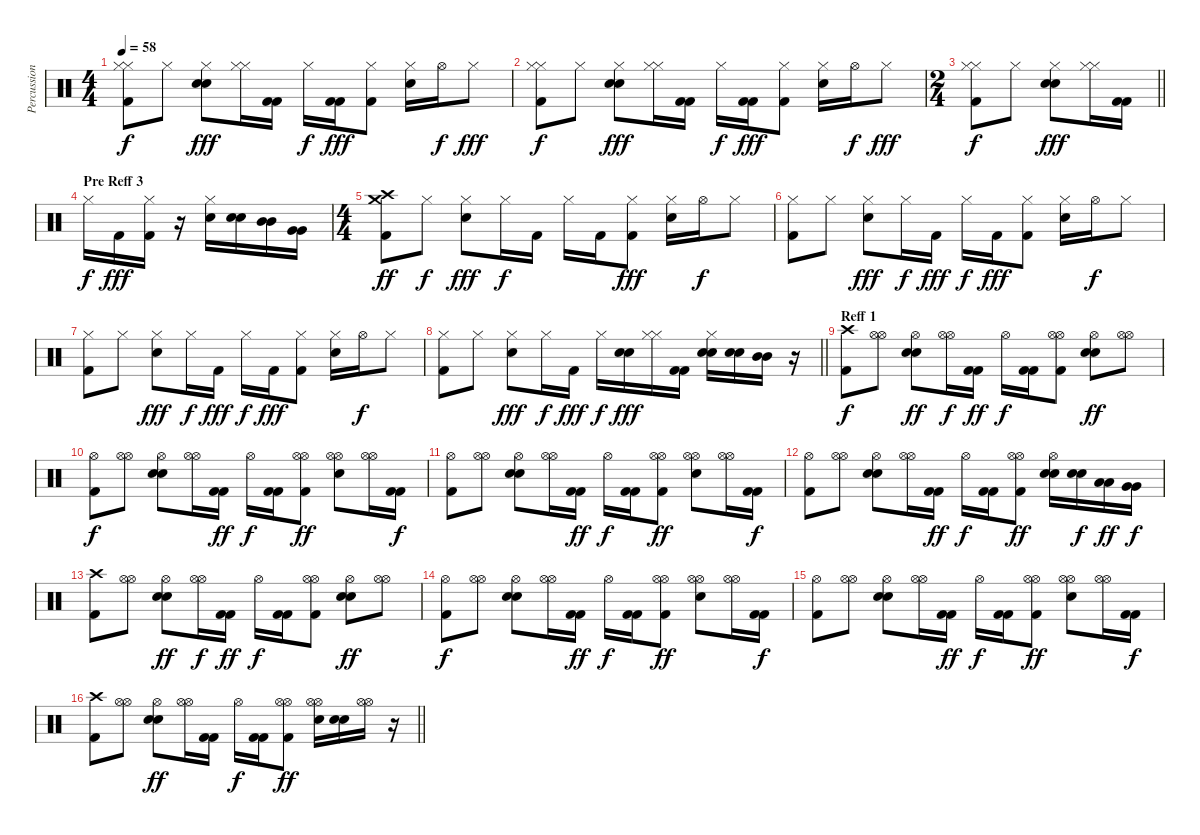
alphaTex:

\track ("Percussion" "Percussion") {instrument percussion}
\staff {score}
\articulation defaults
\ts (4 4)
\tempo 58
\clef neutral
\ks c
("Hi-Hat (closed)" "Kick (hit) 2" "Hi-Hat (closed)").8{dy f} "Hi-Hat (closed)".8 ("Electric Snare (hit)" "Hi-Hat (closed)" "Electric Snare (hit)").8{dy fff} ("Hi-Hat (closed)" "Hi-Hat (closed)").16 ("Kick (hit) 2" "Kick (hit) 2").16 "Hi-Hat (closed)".16{dy f} ("Kick (hit) 2" "Kick (hit) 2").16{dy fff} ("Kick (hit) 2" "Hi-Hat (closed)").8 ("Hi-Hat (closed)" "Electric Snare (hit)").16 "Hi-Hat (open)".16{dy f} "Hi-Hat (closed)".8{dy fff} |
("Hi-Hat (closed)" "Kick (hit) 2" "Hi-Hat (closed)").8{dy f} "Hi-Hat (closed)".8 ("Electric Snare (hit)" "Hi-Hat (closed)" "Electric Snare (hit)").8{dy fff} ("Hi-Hat (closed)" "Hi-Hat (closed)").16 ("Kick (hit) 2" "Kick (hit) 2").16 "Hi-Hat (closed)".16{dy f} ("Kick (hit) 2" "Kick (hit) 2").16{dy fff} ("Kick (hit) 2" "Hi-Hat (closed)").8 ("Hi-Hat (closed)" "Electric Snare (hit)").16 "Hi-Hat (open)".16{dy f} "Hi-Hat (closed)".8{dy fff} |
\ts (2 4)
\barLineRight lightlight
("Hi-Hat (closed)" "Kick (hit) 2" "Hi-Hat (closed)").8{dy f} "Hi-Hat (closed)".8 ("Electric Snare (hit)" "Hi-Hat (closed)" "Electric Snare (hit)").8{dy fff} ("Hi-Hat (closed)" "Hi-Hat (closed)").16 ("Kick (hit) 2" "Kick (hit) 2").16 |
\section ("" "Pre Reff 3")
"Hi-Hat (closed)".16{dy f} "Kick (hit) 2".16{dy fff} ("Hi-Hat (closed)" "Kick (hit) 2").16 r.16 ("Electric Snare (hit)" "Hi-Hat (closed)").16 ("Electric Snare (hit)" "Electric Snare (hit)").16 ("Mid Tom (hit)" "Mid Tom (hit)").16 ("Very Low Tom (hit)" "Very Low Tom (hit)").16 |
\ts (4 4)
("Crash medium (hit)" "Kick (hit) 2" "Crash high (hit)").8{dy ff} "Hi-Hat (closed)".8{dy f} ("Hi-Hat (closed)" "Electric Snare (hit)").8{dy fff} "Hi-Hat (closed)".16{dy f} "Kick (hit) 2".16 "Hi-Hat (closed)".16 "Kick (hit) 2".16 ("Kick (hit) 2" "Hi-Hat (closed)").8{dy fff} ("Hi-Hat (closed)" "Electric Snare (hit)").16 "Hi-Hat (open)".16{dy f} "Hi-Hat (closed)".8 |
("Kick (hit) 2" "Hi-Hat (closed)").8 "Hi-Hat (closed)".8 ("Hi-Hat (closed)" "Electric Snare (hit)").8{dy fff} "Hi-Hat (closed)".16{dy f} "Kick (hit) 2".16{dy fff} "Hi-Hat (closed)".16{dy f} "Kick (hit) 2".16{dy fff} ("Hi-Hat (closed)" "Kick (hit) 2").8 ("Electric Snare (hit)" "Hi-Hat (closed)").16 "Hi-Hat (open)".16{dy f} "Hi-Hat (closed)".8 |
("Kick (hit) 2" "Hi-Hat (closed)").8 "Hi-Hat (closed)".8 ("Hi-Hat (closed)" "Electric Snare (hit)").8{dy fff} "Hi-Hat (closed)".16{dy f} "Kick (hit) 2".16{dy fff} "Hi-Hat (closed)".16{dy f} "Kick (hit) 2".16{dy fff} ("Hi-Hat (closed)" "Kick (hit) 2").8 ("Electric Snare (hit)" "Hi-Hat (closed)").16 "Hi-Hat (open)".16{dy f} "Hi-Hat (closed)".8 |
\barLineRight lightlight
("Kick (hit) 2" "Hi-Hat (closed)").8 "Hi-Hat (closed)".8 ("Hi-Hat (closed)" "Electric Snare (hit)").8{dy fff} "Hi-Hat (closed)".16{dy f} "Kick (hit) 2".16{dy fff} "Hi-Hat (closed)".16{dy f} ("Electric Snare (hit)" "Electric Snare (hit)").16{dy fff} ("Hi-Hat (closed)" "Hi-Hat (closed)").16 ("Kick (hit) 2" "Kick (hit) 2").16 ("Hi-Hat (closed)" "Electric Snare (hit)" "Electric Snare (hit)").16 ("Electric Snare (hit)" "Electric Snare (hit)").16 ("Mid Tom (hit)" "Mid Tom (hit)").16 r.16 |
\section ("" "Reff 1")
("Kick (hit) 2" "Crash high (hit)").8{dy f} ("Hi-Hat (open)" "Hi-Hat (open)").8 ("Hi-Hat (open)" "Electric Snare (hit)" "Electric Snare (hit)").8{dy ff} ("Hi-Hat (open)" "Hi-Hat (open)").16{dy f} ("Kick (hit) 2" "Kick (hit) 2").16{dy ff} "Hi-Hat (open)".16{dy f} ("Kick (hit) 2" "Kick (hit) 2").16 ("Hi-Hat (open)" "Kick (hit) 2" "Hi-Hat (open)").8 ("Electric Snare (hit)" "Hi-Hat (open)" "Electric Snare (hit)").8{dy ff} ("Hi-Hat (open)" "Hi-Hat (open)").8 |
("Kick (hit) 2" "Hi-Hat (open)").8{dy f} ("Hi-Hat (open)" "Hi-Hat (open)").8 ("Electric Snare (hit)" "Hi-Hat (open)" "Electric Snare (hit)").8 ("Hi-Hat (open)" "Hi-Hat (open)").16 ("Kick (hit) 2" "Kick (hit) 2").16{dy ff} "Hi-Hat (open)".16{dy f} ("Kick (hit) 2" "Kick (hit) 2").16 ("Kick (hit) 2" "Hi-Hat (open)" "Hi-Hat (open)").8{dy ff} ("Hi-Hat (open)" "Electric Snare (hit)" "Hi-Hat (open)").8 ("Hi-Hat (open)" "Hi-Hat (open)").16 ("Kick (hit) 2" "Kick (hit) 2").16{dy f} |
("Kick (hit) 2" "Hi-Hat (open)").8 ("Hi-Hat (open)" "Hi-Hat (open)").8 ("Electric Snare (hit)" "Hi-Hat (open)" "Electric Snare (hit)").8 ("Hi-Hat (open)" "Hi-Hat (open)").16 ("Kick (hit) 2" "Kick (hit) 2").16{dy ff} "Hi-Hat (open)".16{dy f} ("Kick (hit) 2" "Kick (hit) 2").16 ("Kick (hit) 2" "Hi-Hat (open)" "Hi-Hat (open)").8{dy ff} ("Hi-Hat (open)" "Electric Snare (hit)" "Hi-Hat (open)").8 ("Hi-Hat (open)" "Hi-Hat (open)").16 ("Kick (hit) 2" "Kick (hit) 2").16{dy f} |
("Kick (hit) 2" "Hi-Hat (open)").8 ("Hi-Hat (open)" "Hi-Hat (open)").8 ("Electric Snare (hit)" "Hi-Hat (open)" "Electric Snare (hit)").8 ("Hi-Hat (open)" "Hi-Hat (open)").16 ("Kick (hit) 2" "Kick (hit) 2").16{dy ff} "Hi-Hat (open)".16{dy f} ("Kick (hit) 2" "Kick (hit) 2").16 ("Kick (hit) 2" "Hi-Hat (open)" "Hi-Hat (open)").8{dy ff} ("Hi-Hat (open)" "Electric Snare (hit)" "Electric Snare (hit)").16 ("Electric Snare (hit)" "Electric Snare (hit)").16{dy f} ("Low Tom (hit)" "Low Tom (hit)").16{dy ff} ("Very Low Tom (hit)" "Very Low Tom (hit)").16{dy f} |
("Kick (hit) 2" "Crash high (hit)").8 ("Hi-Hat (open)" "Hi-Hat (open)").8 ("Hi-Hat (open)" "Electric Snare (hit)" "Electric Snare (hit)").8{dy ff} ("Hi-Hat (open)" "Hi-Hat (open)").16{dy f} ("Kick (hit) 2" "Kick (hit) 2").16{dy ff} "Hi-Hat (open)".16{dy f} ("Kick (hit) 2" "Kick (hit) 2").16 ("Hi-Hat (open)" "Kick (hit) 2" "Hi-Hat (open)").8 ("Electric Snare (hit)" "Hi-Hat (open)" "Electric Snare (hit)").8{dy ff} ("Hi-Hat (open)" "Hi-Hat (open)").8 |
("Kick (hit) 2" "Hi-Hat (open)").8{dy f} ("Hi-Hat (open)" "Hi-Hat (open)").8 ("Electric Snare (hit)" "Hi-Hat (open)" "Electric Snare (hit)").8 ("Hi-Hat (open)" "Hi-Hat (open)").16 ("Kick (hit) 2" "Kick (hit) 2").16{dy ff} "Hi-Hat (open)".16{dy f} ("Kick (hit) 2" "Kick (hit) 2").16 ("Kick (hit) 2" "Hi-Hat (open)" "Hi-Hat (open)").8{dy ff} ("Hi-Hat (open)" "Electric Snare (hit)" "Hi-Hat (open)").8 ("Hi-Hat (open)" "Hi-Hat (open)").16 ("Kick (hit) 2" "Kick (hit) 2").16{dy f} |
("Kick (hit) 2" "Hi-Hat (open)").8 ("Hi-Hat (open)" "Hi-Hat (open)").8 ("Electric Snare (hit)" "Hi-Hat (open)" "Electric Snare (hit)").8 ("Hi-Hat (open)" "Hi-Hat (open)").16 ("Kick (hit) 2" "Kick (hit) 2").16{dy ff} "Hi-Hat (open)".16{dy f} ("Kick (hit) 2" "Kick (hit) 2").16 ("Kick (hit) 2" "Hi-Hat (open)" "Hi-Hat (open)").8{dy ff} ("Hi-Hat (open)" "Electric Snare (hit)" "Hi-Hat (open)").8 ("Hi-Hat (open)" "Hi-Hat (open)").16 ("Kick (hit) 2" "Kick (hit) 2").16{dy f} |
\barLineRight lightlight
("Kick (hit) 2" "Crash high (hit)").8 ("Hi-Hat (open)" "Hi-Hat (open)").8 ("Hi-Hat (open)" "Electric Snare (hit)" "Electric Snare (hit)").8{dy ff} ("Hi-Hat (open)" "Hi-Hat (open)").16 ("Kick (hit) 2" "Kick (hit) 2").16 "Hi-Hat (open)".16{dy f} ("Kick (hit) 2" "Kick (hit) 2").16 ("Hi-Hat (open)" "Kick (hit) 2" "Hi-Hat (open)").8{dy ff} ("Hi-Hat (open)" "Electric Snare (hit)" "Hi-Hat (open)").16 ("Electric Snare (hit)" "Electric Snare (hit)").16 ("Hi-Hat (open)" "Hi-Hat (open)").16 r.16
